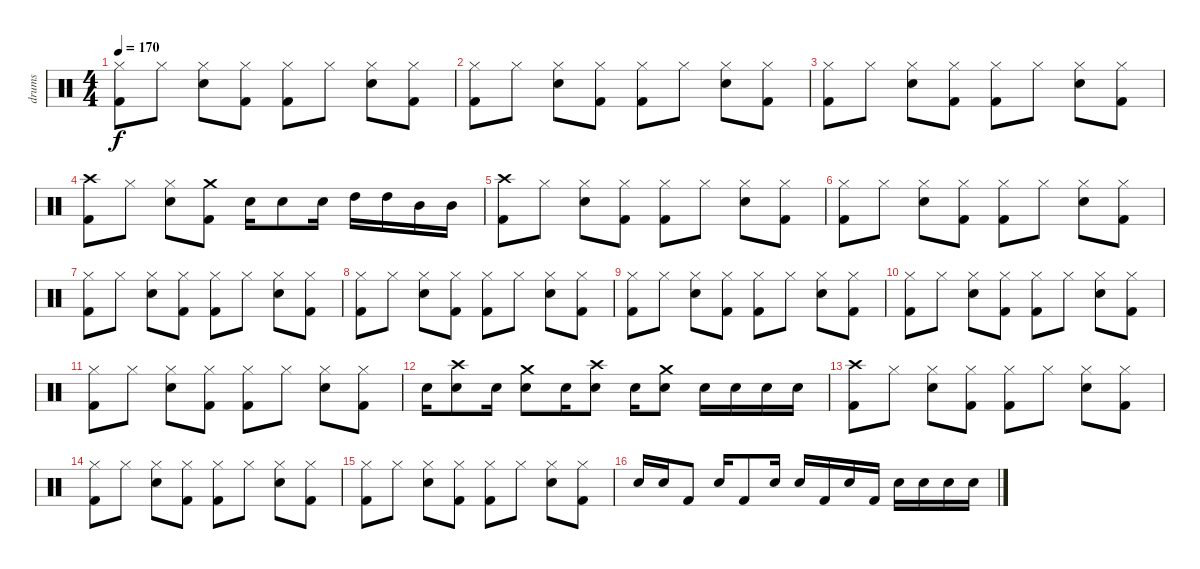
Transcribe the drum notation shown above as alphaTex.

\track ("drums" "drums") {instrument percussion}
\staff {score}
\articulation defaults
\ts (4 4)
\tempo 170
\clef neutral
\ks c
("Hi-Hat (closed)" "Kick (hit) 2").8{dy f} "Hi-Hat (closed)".8 ("Hi-Hat (closed)" "Snare (hit) 2").8 ("Hi-Hat (closed)" "Kick (hit) 2").8 ("Hi-Hat (closed)" "Kick (hit) 2").8 "Hi-Hat (closed)".8 ("Hi-Hat (closed)" "Snare (hit) 2").8 ("Hi-Hat (closed)" "Kick (hit) 2").8 |
("Hi-Hat (closed)" "Kick (hit) 2").8 "Hi-Hat (closed)".8 ("Hi-Hat (closed)" "Snare (hit) 2").8 ("Hi-Hat (closed)" "Kick (hit) 2").8 ("Hi-Hat (closed)" "Kick (hit) 2").8 "Hi-Hat (closed)".8 ("Hi-Hat (closed)" "Snare (hit) 2").8 ("Hi-Hat (closed)" "Kick (hit) 2").8 |
("Hi-Hat (closed)" "Kick (hit) 2").8 "Hi-Hat (closed)".8 ("Hi-Hat (closed)" "Snare (hit) 2").8 ("Hi-Hat (closed)" "Kick (hit) 2").8 ("Hi-Hat (closed)" "Kick (hit) 2").8 "Hi-Hat (closed)".8 ("Hi-Hat (closed)" "Snare (hit) 2").8 ("Hi-Hat (closed)" "Kick (hit) 2").8 |
("Crash high (hit)" "Kick (hit) 2").8 "Hi-Hat (closed)".8 ("Hi-Hat (closed)" "Snare (hit) 2").8 ("Crash medium (hit)" "Kick (hit) 2").8 "Snare (hit) 2".16 "Snare (hit) 2".8 "Snare (hit) 2".16 "High Tom (hit)".16 "High Tom (hit)".16 "Mid Tom (hit)".16 "Mid Tom (hit)".16 |
("Crash high (hit)" "Kick (hit) 2").8 "Hi-Hat (closed)".8 ("Hi-Hat (closed)" "Snare (hit) 2").8 ("Hi-Hat (closed)" "Kick (hit) 2").8 ("Hi-Hat (closed)" "Kick (hit) 2").8 "Hi-Hat (closed)".8 ("Hi-Hat (closed)" "Snare (hit) 2").8 ("Hi-Hat (closed)" "Kick (hit) 2").8 |
("Hi-Hat (closed)" "Kick (hit) 2").8 "Hi-Hat (closed)".8 ("Hi-Hat (closed)" "Snare (hit) 2").8 ("Hi-Hat (closed)" "Kick (hit) 2").8 ("Hi-Hat (closed)" "Kick (hit) 2").8 "Hi-Hat (closed)".8 ("Hi-Hat (closed)" "Snare (hit) 2").8 ("Hi-Hat (closed)" "Kick (hit) 2").8 |
("Hi-Hat (closed)" "Kick (hit) 2").8 "Hi-Hat (closed)".8 ("Hi-Hat (closed)" "Snare (hit) 2").8 ("Hi-Hat (closed)" "Kick (hit) 2").8 ("Hi-Hat (closed)" "Kick (hit) 2").8 "Hi-Hat (closed)".8 ("Hi-Hat (closed)" "Snare (hit) 2").8 ("Hi-Hat (closed)" "Kick (hit) 2").8 |
("Hi-Hat (closed)" "Kick (hit) 2").8 "Hi-Hat (closed)".8 ("Hi-Hat (closed)" "Snare (hit) 2").8 ("Hi-Hat (closed)" "Kick (hit) 2").8 ("Hi-Hat (closed)" "Kick (hit) 2").8 "Hi-Hat (closed)".8 ("Hi-Hat (closed)" "Snare (hit) 2").8 ("Hi-Hat (closed)" "Kick (hit) 2").8 |
("Hi-Hat (closed)" "Kick (hit) 2").8 "Hi-Hat (closed)".8 ("Hi-Hat (closed)" "Snare (hit) 2").8 ("Hi-Hat (closed)" "Kick (hit) 2").8 ("Hi-Hat (closed)" "Kick (hit) 2").8 "Hi-Hat (closed)".8 ("Hi-Hat (closed)" "Snare (hit) 2").8 ("Hi-Hat (closed)" "Kick (hit) 2").8 |
("Hi-Hat (closed)" "Kick (hit) 2").8 "Hi-Hat (closed)".8 ("Hi-Hat (closed)" "Snare (hit) 2").8 ("Hi-Hat (closed)" "Kick (hit) 2").8 ("Hi-Hat (closed)" "Kick (hit) 2").8 "Hi-Hat (closed)".8 ("Hi-Hat (closed)" "Snare (hit) 2").8 ("Hi-Hat (closed)" "Kick (hit) 2").8 |
("Hi-Hat (closed)" "Kick (hit) 2").8 "Hi-Hat (closed)".8 ("Hi-Hat (closed)" "Snare (hit) 2").8 ("Hi-Hat (closed)" "Kick (hit) 2").8 ("Hi-Hat (closed)" "Kick (hit) 2").8 "Hi-Hat (closed)".8 ("Hi-Hat (closed)" "Snare (hit) 2").8 ("Hi-Hat (closed)" "Kick (hit) 2").8 |
"Snare (hit) 2".16 ("Crash high (hit)" "Snare (hit) 2").8 "Snare (hit) 2".16 ("Crash medium (hit)" "Snare (hit) 2").8 "Snare (hit) 2".16 ("Crash high (hit)" "Snare (hit) 2").8 "Snare (hit) 2".16 ("Crash medium (hit)" "Snare (hit) 2").8 "Snare (hit) 2".16 "Snare (hit) 2".16 "Snare (hit) 2".16 "Snare (hit) 2".16 |
("Crash high (hit)" "Kick (hit) 2").8 "Hi-Hat (closed)".8 ("Hi-Hat (closed)" "Snare (hit) 2").8 ("Hi-Hat (closed)" "Kick (hit) 2").8 ("Hi-Hat (closed)" "Kick (hit) 2").8 "Hi-Hat (closed)".8 ("Hi-Hat (closed)" "Snare (hit) 2").8 ("Hi-Hat (closed)" "Kick (hit) 2").8 |
("Hi-Hat (closed)" "Kick (hit) 2").8 "Hi-Hat (closed)".8 ("Hi-Hat (closed)" "Snare (hit) 2").8 ("Hi-Hat (closed)" "Kick (hit) 2").8 ("Hi-Hat (closed)" "Kick (hit) 2").8 "Hi-Hat (closed)".8 ("Hi-Hat (closed)" "Snare (hit) 2").8 ("Hi-Hat (closed)" "Kick (hit) 2").8 |
("Hi-Hat (closed)" "Kick (hit) 2").8 "Hi-Hat (closed)".8 ("Hi-Hat (closed)" "Snare (hit) 2").8 ("Hi-Hat (closed)" "Kick (hit) 2").8 ("Hi-Hat (closed)" "Kick (hit) 2").8 "Hi-Hat (closed)".8 ("Hi-Hat (closed)" "Snare (hit) 2").8 ("Hi-Hat (closed)" "Kick (hit) 2").8 |
"Snare (hit) 2".16 "Snare (hit) 2".16 "Kick (hit) 2".8 "Snare (hit) 2".16 "Kick (hit) 2".8 "Snare (hit) 2".16 "Snare (hit) 2".16 "Kick (hit) 2".16 "Snare (hit) 2".16 "Kick (hit) 2".16 "Snare (hit) 2".16 "Snare (hit) 2".16 "Snare (hit) 2".16 "Snare (hit) 2".16
